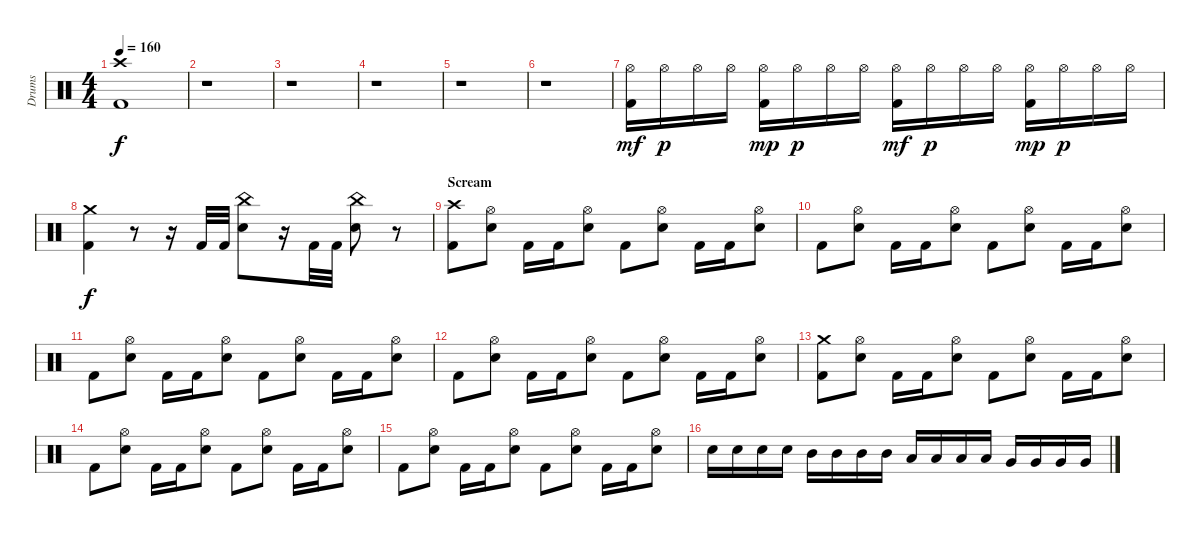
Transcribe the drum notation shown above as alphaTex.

\track ("Drums" "Drums") {instrument percussion}
\staff {score}
\articulation defaults
\ts (4 4)
\tempo 160
\clef neutral
\ks c
("Crash high (hit)" "Kick (hit) 2").1{dy f} |
r.1 |
r.1 |
r.1 |
r.1 |
r.1 |
("Hi-Hat (open)" "Kick (hit) 2").16{dy mf} "Hi-Hat (open)".16{dy p} "Hi-Hat (open)".16 "Hi-Hat (open)".16 ("Hi-Hat (open)" "Kick (hit) 2").16{dy mp} "Hi-Hat (open)".16{dy p} "Hi-Hat (open)".16 "Hi-Hat (open)".16 ("Hi-Hat (open)" "Kick (hit) 2").16{dy mf} "Hi-Hat (open)".16{dy p} "Hi-Hat (open)".16 "Hi-Hat (open)".16 ("Hi-Hat (open)" "Kick (hit) 2").16{dy mp} "Hi-Hat (open)".16{dy p} "Hi-Hat (open)".16 "Hi-Hat (open)".16 |
("Crash medium (hit)" "Kick (hit) 2").4{dy f} r.8 r.16 "Kick (hit) 2".32 "Kick (hit) 2".32 ("China (hit)" "Snare (hit) 2").8 r.16 "Kick (hit) 2".32 "Kick (hit) 2".32 ("China (hit)" "Snare (hit) 2").8 r.8 |
\section ("" "Scream")
("Crash high (hit)" "Kick (hit) 2").8 ("Hi-Hat (open)" "Snare (hit) 2").8 "Kick (hit) 2".16 "Kick (hit) 2".16 ("Hi-Hat (open)" "Snare (hit) 2").8 "Kick (hit) 2".8 ("Hi-Hat (open)" "Snare (hit) 2").8 "Kick (hit) 2".16 "Kick (hit) 2".16 ("Hi-Hat (open)" "Snare (hit) 2").8 |
"Kick (hit) 2".8 ("Hi-Hat (open)" "Snare (hit) 2").8 "Kick (hit) 2".16 "Kick (hit) 2".16 ("Hi-Hat (open)" "Snare (hit) 2").8 "Kick (hit) 2".8 ("Hi-Hat (open)" "Snare (hit) 2").8 "Kick (hit) 2".16 "Kick (hit) 2".16 ("Hi-Hat (open)" "Snare (hit) 2").8 |
"Kick (hit) 2".8 ("Hi-Hat (open)" "Snare (hit) 2").8 "Kick (hit) 2".16 "Kick (hit) 2".16 ("Hi-Hat (open)" "Snare (hit) 2").8 "Kick (hit) 2".8 ("Hi-Hat (open)" "Snare (hit) 2").8 "Kick (hit) 2".16 "Kick (hit) 2".16 ("Hi-Hat (open)" "Snare (hit) 2").8 |
"Kick (hit) 2".8 ("Hi-Hat (open)" "Snare (hit) 2").8 "Kick (hit) 2".16 "Kick (hit) 2".16 ("Hi-Hat (open)" "Snare (hit) 2").8 "Kick (hit) 2".8 ("Hi-Hat (open)" "Snare (hit) 2").8 "Kick (hit) 2".16 "Kick (hit) 2".16 ("Hi-Hat (open)" "Snare (hit) 2").8 |
("Crash medium (hit)" "Kick (hit) 2").8 ("Hi-Hat (open)" "Snare (hit) 2").8 "Kick (hit) 2".16 "Kick (hit) 2".16 ("Hi-Hat (open)" "Snare (hit) 2").8 "Kick (hit) 2".8 ("Hi-Hat (open)" "Snare (hit) 2").8 "Kick (hit) 2".16 "Kick (hit) 2".16 ("Hi-Hat (open)" "Snare (hit) 2").8 |
"Kick (hit) 2".8 ("Hi-Hat (open)" "Snare (hit) 2").8 "Kick (hit) 2".16 "Kick (hit) 2".16 ("Hi-Hat (open)" "Snare (hit) 2").8 "Kick (hit) 2".8 ("Hi-Hat (open)" "Snare (hit) 2").8 "Kick (hit) 2".16 "Kick (hit) 2".16 ("Hi-Hat (open)" "Snare (hit) 2").8 |
"Kick (hit) 2".8 ("Hi-Hat (open)" "Snare (hit) 2").8 "Kick (hit) 2".16 "Kick (hit) 2".16 ("Hi-Hat (open)" "Snare (hit) 2").8 "Kick (hit) 2".8 ("Hi-Hat (open)" "Snare (hit) 2").8 "Kick (hit) 2".16 "Kick (hit) 2".16 ("Hi-Hat (open)" "Snare (hit) 2").8 |
"Snare (hit) 2".16 "Snare (hit) 2".16 "Snare (hit) 2".16 "Snare (hit) 2".16 "Mid Tom (hit)".16 "Mid Tom (hit)".16 "Mid Tom (hit)".16 "Mid Tom (hit)".16 "Low Tom (hit)".16 "Low Tom (hit)".16 "Low Tom (hit)".16 "Low Tom (hit)".16 "Very Low Tom (hit)".16 "Very Low Tom (hit)".16 "Very Low Tom (hit)".16 "Very Low Tom (hit)".16
